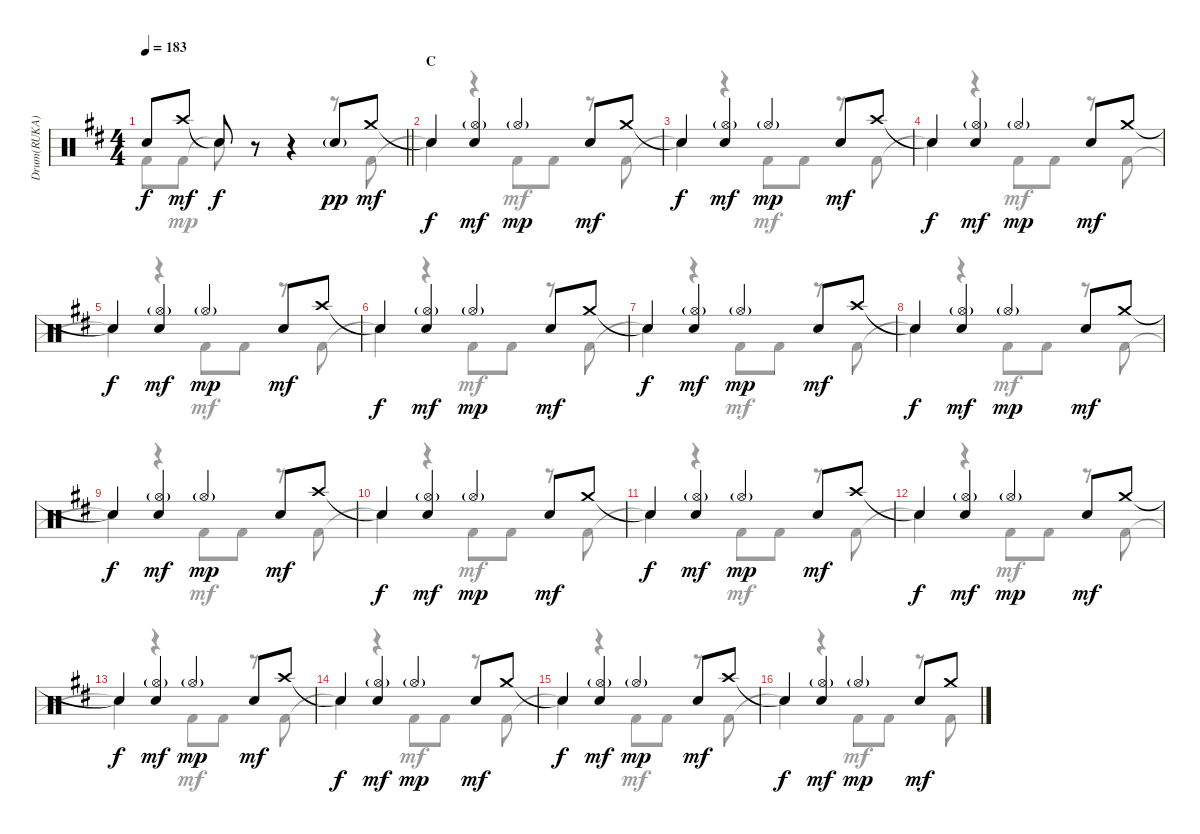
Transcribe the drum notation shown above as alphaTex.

\track ("Drum(RUKA)" "Drum(RUKA)") {instrument percussion}
\staff {score}
\articulation defaults
\voice
\ts (4 4)
\tempo 183
\clef neutral
\barLineRight lightlight
\ks d "Snare (hit)"{t}.8{dy f} "Crash high (hit)".8{dy mf} "Snare (hit)"{t}.8{dy f volume 5}
r.8 r.4{volume 0} "Electric Snare (hit)"{g}.8{dy pp volume 12} "Crash medium (hit)".8{dy mf} |
\section ("" "C")
"Snare (hit)"{t}.4{dy f} ("Hi-Hat (open)"{g} "Snare (hit) 2").4{dy mf} "Hi-Hat (open)"{g}.4{dy mp} "Snare (hit) 2".8{dy mf} "Crash medium (hit)".8 |
"Snare (hit)"{t}.4{dy f} ("Hi-Hat (open)"{g} "Snare (hit) 2").4{dy mf} "Hi-Hat (open)"{g}.4{dy mp} "Snare (hit) 2".8{dy mf} "Crash high (hit)".8 |
"Snare (hit)"{t}.4{dy f} ("Hi-Hat (open)"{g} "Snare (hit) 2").4{dy mf} "Hi-Hat (open)"{g}.4{dy mp} "Snare (hit) 2".8{dy mf} "Crash medium (hit)".8 |
"Snare (hit)"{t}.4{dy f} ("Hi-Hat (open)"{g} "Snare (hit) 2").4{dy mf} "Hi-Hat (open)"{g}.4{dy mp} "Snare (hit) 2".8{dy mf} "Crash high (hit)".8 |
"Snare (hit)"{t}.4{dy f} ("Hi-Hat (open)"{g} "Snare (hit) 2").4{dy mf} "Hi-Hat (open)"{g}.4{dy mp} "Snare (hit) 2".8{dy mf} "Crash medium (hit)".8 |
"Snare (hit)"{t}.4{dy f} ("Hi-Hat (open)"{g} "Snare (hit) 2").4{dy mf} "Hi-Hat (open)"{g}.4{dy mp} "Snare (hit) 2".8{dy mf} "Crash high (hit)".8 |
"Snare (hit)"{t}.4{dy f} ("Hi-Hat (open)"{g} "Snare (hit) 2").4{dy mf} "Hi-Hat (open)"{g}.4{dy mp} "Snare (hit) 2".8{dy mf} "Crash medium (hit)".8 |
"Snare (hit)"{t}.4{dy f} ("Hi-Hat (open)"{g} "Snare (hit) 2").4{dy mf} "Hi-Hat (open)"{g}.4{dy mp} "Snare (hit) 2".8{dy mf} "Crash high (hit)".8 |
"Snare (hit)"{t}.4{dy f} ("Hi-Hat (open)"{g} "Snare (hit) 2").4{dy mf} "Hi-Hat (open)"{g}.4{dy mp} "Snare (hit) 2".8{dy mf} "Crash medium (hit)".8 |
"Snare (hit)"{t}.4{dy f} ("Hi-Hat (open)"{g} "Snare (hit) 2").4{dy mf} "Hi-Hat (open)"{g}.4{dy mp} "Snare (hit) 2".8{dy mf} "Crash high (hit)".8 |
"Snare (hit)"{t}.4{dy f} ("Hi-Hat (open)"{g} "Snare (hit) 2").4{dy mf} "Hi-Hat (open)"{g}.4{dy mp} "Snare (hit) 2".8{dy mf} "Crash medium (hit)".8 |
"Snare (hit)"{t}.4{dy f} ("Hi-Hat (open)"{g} "Snare (hit) 2").4{dy mf} "Hi-Hat (open)"{g}.4{dy mp} "Snare (hit) 2".8{dy mf} "Crash high (hit)".8 |
"Snare (hit)"{t}.4{dy f} ("Hi-Hat (open)"{g} "Snare (hit) 2").4{dy mf} "Hi-Hat (open)"{g}.4{dy mp} "Snare (hit) 2".8{dy mf} "Crash medium (hit)".8 |
"Snare (hit)"{t}.4{dy f} ("Hi-Hat (open)"{g} "Snare (hit) 2").4{dy mf} "Hi-Hat (open)"{g}.4{dy mp} "Snare (hit) 2".8{dy mf} "Crash high (hit)".8 |
"Snare (hit)"{t}.4{dy f} ("Hi-Hat (open)"{g} "Snare (hit) 2").4{dy mf} "Hi-Hat (open)"{g}.4{dy mp} "Snare (hit) 2".8{dy mf} "Crash medium (hit)".8
\voice
\clef neutral
\ottava regular
\simile none
\barLineRight lightlight
\ks d "Kick (hit) 2"{t}.8{dy f} "Kick (hit) 2".8{dy mp} "Snare (hit)"{t}.8{dy f}
r.8 r.4 r.8 "Kick (hit) 2".8{dy mf} |
"Snare (hit)"{t}.4{dy f} r.4 "Kick (hit) 2".8{dy mf} "Kick (hit) 2".8 r.8 "Kick (hit) 2".8 |
"Snare (hit)"{t}.4{dy f} r.4 "Kick (hit) 2".8{dy mf} "Kick (hit) 2".8 r.8 "Kick (hit) 2".8 |
"Snare (hit)"{t}.4{dy f} r.4 "Kick (hit) 2".8{dy mf} "Kick (hit) 2".8 r.8 "Kick (hit) 2".8 |
"Snare (hit)"{t}.4{dy f} r.4 "Kick (hit) 2".8{dy mf} "Kick (hit) 2".8 r.8 "Kick (hit) 2".8 |
"Snare (hit)"{t}.4{dy f} r.4 "Kick (hit) 2".8{dy mf} "Kick (hit) 2".8 r.8 "Kick (hit) 2".8 |
"Snare (hit)"{t}.4{dy f} r.4 "Kick (hit) 2".8{dy mf} "Kick (hit) 2".8 r.8 "Kick (hit) 2".8 |
"Snare (hit)"{t}.4{dy f} r.4 "Kick (hit) 2".8{dy mf} "Kick (hit) 2".8 r.8 "Kick (hit) 2".8 |
"Snare (hit)"{t}.4{dy f} r.4 "Kick (hit) 2".8{dy mf} "Kick (hit) 2".8 r.8 "Kick (hit) 2".8 |
"Snare (hit)"{t}.4{dy f} r.4 "Kick (hit) 2".8{dy mf} "Kick (hit) 2".8 r.8 "Kick (hit) 2".8 |
"Snare (hit)"{t}.4{dy f} r.4 "Kick (hit) 2".8{dy mf} "Kick (hit) 2".8 r.8 "Kick (hit) 2".8 |
"Snare (hit)"{t}.4{dy f} r.4 "Kick (hit) 2".8{dy mf} "Kick (hit) 2".8 r.8 "Kick (hit) 2".8 |
"Snare (hit)"{t}.4{dy f} r.4 "Kick (hit) 2".8{dy mf} "Kick (hit) 2".8 r.8 "Kick (hit) 2".8 |
"Snare (hit)"{t}.4{dy f} r.4 "Kick (hit) 2".8{dy mf} "Kick (hit) 2".8 r.8 "Kick (hit) 2".8 |
"Snare (hit)"{t}.4{dy f} r.4 "Kick (hit) 2".8{dy mf} "Kick (hit) 2".8 r.8 "Kick (hit) 2".8 |
"Snare (hit)"{t}.4{dy f} r.4 "Kick (hit) 2".8{dy mf} "Kick (hit) 2".8 r.8 "Kick (hit) 2".8
